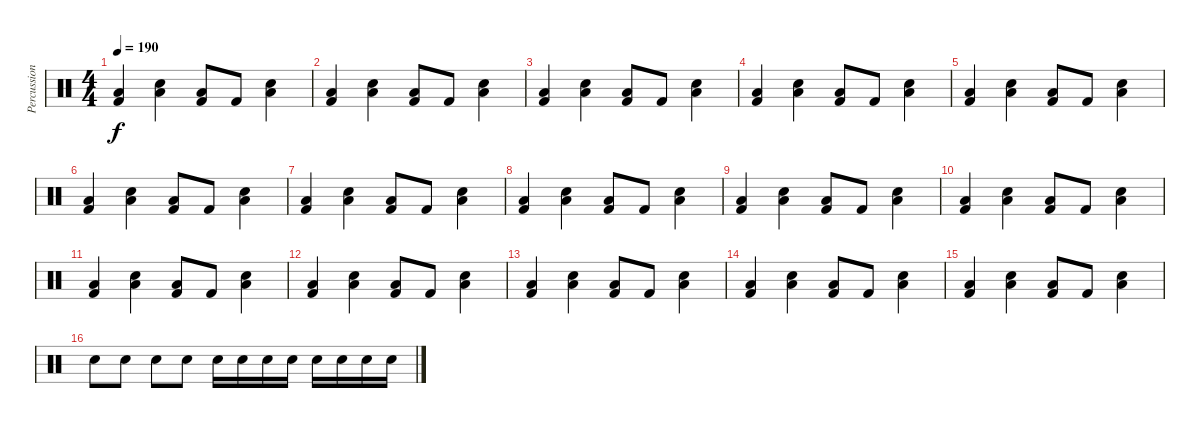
\track ("Percussion" "Percussion") {instrument percussion}
\staff {score}
\articulation defaults
\ts (4 4)
\tempo 190
\clef neutral
\ks c
("Low Tom (hit)" "Kick (hit) 2").4{dy f} ("Low Tom (hit)" "Snare (hit) 2").4 ("Low Tom (hit)" "Kick (hit) 2").8 "Kick (hit) 2".8 ("Low Tom (hit)" "Snare (hit) 2").4 |
("Low Tom (hit)" "Kick (hit) 2").4 ("Low Tom (hit)" "Snare (hit) 2").4 ("Low Tom (hit)" "Kick (hit) 2").8 "Kick (hit) 2".8 ("Low Tom (hit)" "Snare (hit) 2").4 |
("Low Tom (hit)" "Kick (hit) 2").4 ("Low Tom (hit)" "Snare (hit) 2").4 ("Low Tom (hit)" "Kick (hit) 2").8 "Kick (hit) 2".8 ("Low Tom (hit)" "Snare (hit) 2").4 |
("Low Tom (hit)" "Kick (hit) 2").4 ("Low Tom (hit)" "Snare (hit) 2").4 ("Low Tom (hit)" "Kick (hit) 2").8 "Kick (hit) 2".8 ("Low Tom (hit)" "Snare (hit) 2").4 |
("Low Tom (hit)" "Kick (hit) 2").4 ("Low Tom (hit)" "Snare (hit) 2").4 ("Low Tom (hit)" "Kick (hit) 2").8 "Kick (hit) 2".8 ("Low Tom (hit)" "Snare (hit) 2").4 |
("Low Tom (hit)" "Kick (hit) 2").4 ("Low Tom (hit)" "Snare (hit) 2").4 ("Low Tom (hit)" "Kick (hit) 2").8 "Kick (hit) 2".8 ("Low Tom (hit)" "Snare (hit) 2").4 |
("Low Tom (hit)" "Kick (hit) 2").4 ("Low Tom (hit)" "Snare (hit) 2").4 ("Low Tom (hit)" "Kick (hit) 2").8 "Kick (hit) 2".8 ("Low Tom (hit)" "Snare (hit) 2").4 |
("Low Tom (hit)" "Kick (hit) 2").4 ("Low Tom (hit)" "Snare (hit) 2").4 ("Low Tom (hit)" "Kick (hit) 2").8 "Kick (hit) 2".8 ("Low Tom (hit)" "Snare (hit) 2").4 |
("Low Tom (hit)" "Kick (hit) 2").4 ("Low Tom (hit)" "Snare (hit) 2").4 ("Low Tom (hit)" "Kick (hit) 2").8 "Kick (hit) 2".8 ("Low Tom (hit)" "Snare (hit) 2").4 |
("Low Tom (hit)" "Kick (hit) 2").4 ("Low Tom (hit)" "Snare (hit) 2").4 ("Low Tom (hit)" "Kick (hit) 2").8 "Kick (hit) 2".8 ("Low Tom (hit)" "Snare (hit) 2").4 |
("Low Tom (hit)" "Kick (hit) 2").4 ("Low Tom (hit)" "Snare (hit) 2").4 ("Low Tom (hit)" "Kick (hit) 2").8 "Kick (hit) 2".8 ("Low Tom (hit)" "Snare (hit) 2").4 |
("Low Tom (hit)" "Kick (hit) 2").4 ("Low Tom (hit)" "Snare (hit) 2").4 ("Low Tom (hit)" "Kick (hit) 2").8 "Kick (hit) 2".8 ("Low Tom (hit)" "Snare (hit) 2").4 |
("Low Tom (hit)" "Kick (hit) 2").4 ("Low Tom (hit)" "Snare (hit) 2").4 ("Low Tom (hit)" "Kick (hit) 2").8 "Kick (hit) 2".8 ("Low Tom (hit)" "Snare (hit) 2").4 |
("Low Tom (hit)" "Kick (hit) 2").4 ("Low Tom (hit)" "Snare (hit) 2").4 ("Low Tom (hit)" "Kick (hit) 2").8 "Kick (hit) 2".8 ("Low Tom (hit)" "Snare (hit) 2").4 |
("Low Tom (hit)" "Kick (hit) 2").4 ("Low Tom (hit)" "Snare (hit) 2").4 ("Low Tom (hit)" "Kick (hit) 2").8 "Kick (hit) 2".8 ("Low Tom (hit)" "Snare (hit) 2").4 |
"Snare (hit) 2".8 "Snare (hit) 2".8 "Snare (hit) 2".8 "Snare (hit) 2".8 "Snare (hit) 2".16 "Snare (hit) 2".16 "Snare (hit) 2".16 "Snare (hit) 2".16 "Snare (hit) 2".16 "Snare (hit) 2".16 "Snare (hit) 2".16 "Snare (hit) 2".16
